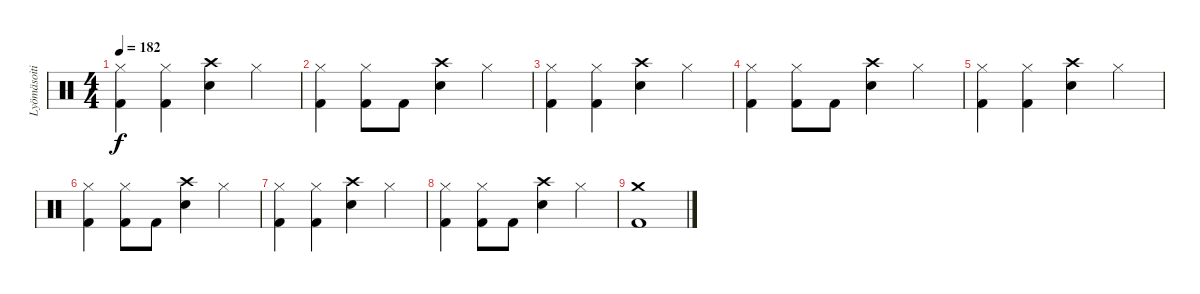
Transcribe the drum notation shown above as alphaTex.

\track ("Lyömäsoitin" "Lyömäsoiti") {instrument percussion}
\staff {score}
\articulation defaults
\ts (4 4)
\tempo 182
\clef neutral
\ks c
("Hi-Hat (closed)" "Kick (hit) 2").4{dy f} ("Hi-Hat (closed)" "Kick (hit) 2").4 ("Crash high (hit)" "Electric Snare (hit)").4 "Hi-Hat (closed)".4 |
("Hi-Hat (closed)" "Kick (hit) 2").4 ("Hi-Hat (closed)" "Kick (hit) 2").8 "Kick (hit) 2".8 ("Crash high (hit)" "Electric Snare (hit)").4 "Hi-Hat (closed)".4 |
("Hi-Hat (closed)" "Kick (hit) 2").4 ("Hi-Hat (closed)" "Kick (hit) 2").4 ("Crash high (hit)" "Electric Snare (hit)").4 "Hi-Hat (closed)".4 |
("Hi-Hat (closed)" "Kick (hit) 2").4 ("Hi-Hat (closed)" "Kick (hit) 2").8 "Kick (hit) 2".8 ("Crash high (hit)" "Electric Snare (hit)").4 "Hi-Hat (closed)".4 |
("Hi-Hat (closed)" "Kick (hit) 2").4 ("Hi-Hat (closed)" "Kick (hit) 2").4 ("Crash high (hit)" "Electric Snare (hit)").4 "Hi-Hat (closed)".4 |
("Hi-Hat (closed)" "Kick (hit) 2").4 ("Hi-Hat (closed)" "Kick (hit) 2").8 "Kick (hit) 2".8 ("Crash high (hit)" "Electric Snare (hit)").4 "Hi-Hat (closed)".4 |
("Hi-Hat (closed)" "Kick (hit) 2").4 ("Hi-Hat (closed)" "Kick (hit) 2").4 ("Crash high (hit)" "Electric Snare (hit)").4 "Hi-Hat (closed)".4 |
("Hi-Hat (closed)" "Kick (hit) 2").4 ("Hi-Hat (closed)" "Kick (hit) 2").8 "Kick (hit) 2".8 ("Crash high (hit)" "Electric Snare (hit)").4 "Hi-Hat (closed)".4 |
("Crash medium (hit)" "Kick (hit) 2").1
